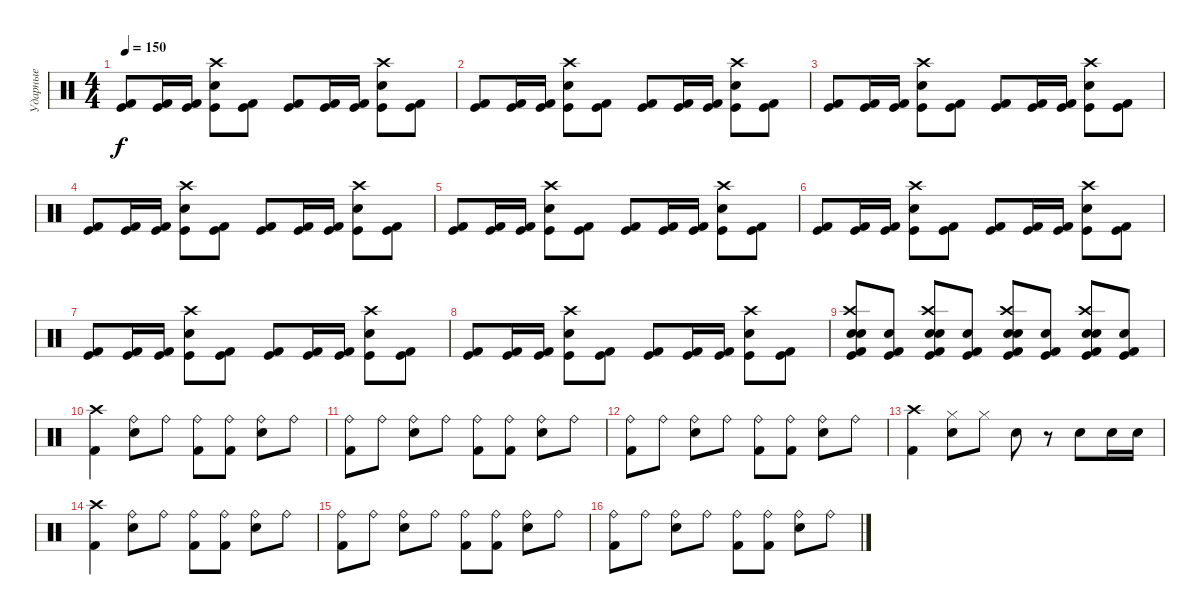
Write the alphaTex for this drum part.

\track ("Ударные" "Ударные") {instrument percussion}
\staff {score}
\articulation defaults
\ts (4 4)
\tempo 150
\clef neutral
\ks c
("Kick (hit)" "Kick (hit) 2").8{dy f} ("Kick (hit)" "Kick (hit) 2").16 ("Kick (hit)" "Kick (hit) 2").16 ("Kick (hit)" "Electric Snare (hit)" "Crash high (hit)").8 ("Kick (hit)" "Kick (hit) 2").8 ("Kick (hit)" "Kick (hit) 2").8 ("Kick (hit)" "Kick (hit) 2").16 ("Kick (hit)" "Kick (hit) 2").16 ("Kick (hit)" "Electric Snare (hit)" "Crash high (hit)").8 ("Kick (hit)" "Kick (hit) 2").8 |
("Kick (hit)" "Kick (hit) 2").8 ("Kick (hit)" "Kick (hit) 2").16 ("Kick (hit)" "Kick (hit) 2").16 ("Kick (hit)" "Electric Snare (hit)" "Crash high (hit)").8 ("Kick (hit)" "Kick (hit) 2").8 ("Kick (hit)" "Kick (hit) 2").8 ("Kick (hit)" "Kick (hit) 2").16 ("Kick (hit)" "Kick (hit) 2").16 ("Kick (hit)" "Electric Snare (hit)" "Crash high (hit)").8 ("Kick (hit)" "Kick (hit) 2").8 |
("Kick (hit)" "Kick (hit) 2").8 ("Kick (hit)" "Kick (hit) 2").16 ("Kick (hit)" "Kick (hit) 2").16 ("Kick (hit)" "Electric Snare (hit)" "Crash high (hit)").8 ("Kick (hit)" "Kick (hit) 2").8 ("Kick (hit)" "Kick (hit) 2").8 ("Kick (hit)" "Kick (hit) 2").16 ("Kick (hit)" "Kick (hit) 2").16 ("Kick (hit)" "Electric Snare (hit)" "Crash high (hit)").8 ("Kick (hit)" "Kick (hit) 2").8 |
("Kick (hit)" "Kick (hit) 2").8 ("Kick (hit)" "Kick (hit) 2").16 ("Kick (hit)" "Kick (hit) 2").16 ("Kick (hit)" "Electric Snare (hit)" "Crash high (hit)").8 ("Kick (hit)" "Kick (hit) 2").8 ("Kick (hit)" "Kick (hit) 2").8 ("Kick (hit)" "Kick (hit) 2").16 ("Kick (hit)" "Kick (hit) 2").16 ("Kick (hit)" "Electric Snare (hit)" "Crash high (hit)").8 ("Kick (hit)" "Kick (hit) 2").8 |
("Kick (hit)" "Kick (hit) 2").8 ("Kick (hit)" "Kick (hit) 2").16 ("Kick (hit)" "Kick (hit) 2").16 ("Kick (hit)" "Electric Snare (hit)" "Crash high (hit)").8 ("Kick (hit)" "Kick (hit) 2").8 ("Kick (hit)" "Kick (hit) 2").8 ("Kick (hit)" "Kick (hit) 2").16 ("Kick (hit)" "Kick (hit) 2").16 ("Kick (hit)" "Electric Snare (hit)" "Crash high (hit)").8 ("Kick (hit)" "Kick (hit) 2").8 |
("Kick (hit)" "Kick (hit) 2").8 ("Kick (hit)" "Kick (hit) 2").16 ("Kick (hit)" "Kick (hit) 2").16 ("Kick (hit)" "Electric Snare (hit)" "Crash high (hit)").8 ("Kick (hit)" "Kick (hit) 2").8 ("Kick (hit)" "Kick (hit) 2").8 ("Kick (hit)" "Kick (hit) 2").16 ("Kick (hit)" "Kick (hit) 2").16 ("Kick (hit)" "Electric Snare (hit)" "Crash high (hit)").8 ("Kick (hit)" "Kick (hit) 2").8 |
("Kick (hit)" "Kick (hit) 2").8 ("Kick (hit)" "Kick (hit) 2").16 ("Kick (hit)" "Kick (hit) 2").16 ("Kick (hit)" "Electric Snare (hit)" "Crash high (hit)").8 ("Kick (hit)" "Kick (hit) 2").8 ("Kick (hit)" "Kick (hit) 2").8 ("Kick (hit)" "Kick (hit) 2").16 ("Kick (hit)" "Kick (hit) 2").16 ("Kick (hit)" "Electric Snare (hit)" "Crash high (hit)").8 ("Kick (hit)" "Kick (hit) 2").8 |
("Kick (hit)" "Kick (hit) 2").8 ("Kick (hit)" "Kick (hit) 2").16 ("Kick (hit)" "Kick (hit) 2").16 ("Kick (hit)" "Electric Snare (hit)" "Crash high (hit)").8 ("Kick (hit)" "Kick (hit) 2").8 ("Kick (hit)" "Kick (hit) 2").8 ("Kick (hit)" "Kick (hit) 2").16 ("Kick (hit)" "Kick (hit) 2").16 ("Kick (hit)" "Electric Snare (hit)" "Crash high (hit)").8 ("Kick (hit)" "Kick (hit) 2").8 |
("Kick (hit)" "Electric Snare (hit)" "Snare (hit) 2" "Kick (hit) 2" "Crash high (hit)").8 ("Kick (hit)" "Electric Snare (hit)" "Kick (hit) 2").8 ("Kick (hit)" "Electric Snare (hit)" "Snare (hit) 2" "Kick (hit) 2" "Crash high (hit)").8 ("Kick (hit)" "Electric Snare (hit)" "Kick (hit) 2").8 ("Kick (hit)" "Electric Snare (hit)" "Snare (hit) 2" "Kick (hit) 2" "Crash high (hit)").8 ("Kick (hit)" "Electric Snare (hit)" "Kick (hit) 2").8 ("Kick (hit)" "Electric Snare (hit)" "Snare (hit) 2" "Kick (hit) 2" "Crash high (hit)").8 ("Kick (hit)" "Electric Snare (hit)" "Kick (hit) 2").8 |
("Crash high (hit)" "Kick (hit) 2").4 ("Ride (bell)" "Electric Snare (hit)").8 "Ride (bell)".8 ("Ride (bell)" "Kick (hit) 2").8 ("Ride (bell)" "Kick (hit) 2").8 ("Ride (bell)" "Electric Snare (hit)").8 "Ride (bell)".8 |
("Ride (bell)" "Kick (hit) 2").8 "Ride (bell)".8 ("Ride (bell)" "Electric Snare (hit)").8 "Ride (bell)".8 ("Ride (bell)" "Kick (hit) 2").8 ("Ride (bell)" "Kick (hit) 2").8 ("Ride (bell)" "Electric Snare (hit)").8 "Ride (bell)".8 |
("Ride (bell)" "Kick (hit) 2").8 "Ride (bell)".8 ("Ride (bell)" "Electric Snare (hit)").8 "Ride (bell)".8 ("Ride (bell)" "Kick (hit) 2").8 ("Ride (bell)" "Kick (hit) 2").8 ("Ride (bell)" "Electric Snare (hit)").8 "Ride (bell)".8 |
("Crash high (hit)" "Kick (hit) 2").4 ("Hi-Hat (closed)" "Electric Snare (hit)").8 "Hi-Hat (closed)".8 "Electric Snare (hit)".8 r.8 "Electric Snare (hit)".8 "Electric Snare (hit)".16 "Electric Snare (hit)".16 |
("Crash high (hit)" "Kick (hit) 2").4 ("Ride (bell)" "Electric Snare (hit)").8 "Ride (bell)".8 ("Ride (bell)" "Kick (hit) 2").8 ("Ride (bell)" "Kick (hit) 2").8 ("Ride (bell)" "Electric Snare (hit)").8 "Ride (bell)".8 |
("Ride (bell)" "Kick (hit) 2").8 "Ride (bell)".8 ("Ride (bell)" "Electric Snare (hit)").8 "Ride (bell)".8 ("Ride (bell)" "Kick (hit) 2").8 ("Ride (bell)" "Kick (hit) 2").8 ("Ride (bell)" "Electric Snare (hit)").8 "Ride (bell)".8 |
("Ride (bell)" "Kick (hit) 2").8 "Ride (bell)".8 ("Ride (bell)" "Electric Snare (hit)").8 "Ride (bell)".8 ("Ride (bell)" "Kick (hit) 2").8 ("Ride (bell)" "Kick (hit) 2").8 ("Ride (bell)" "Electric Snare (hit)").8 "Ride (bell)".8
